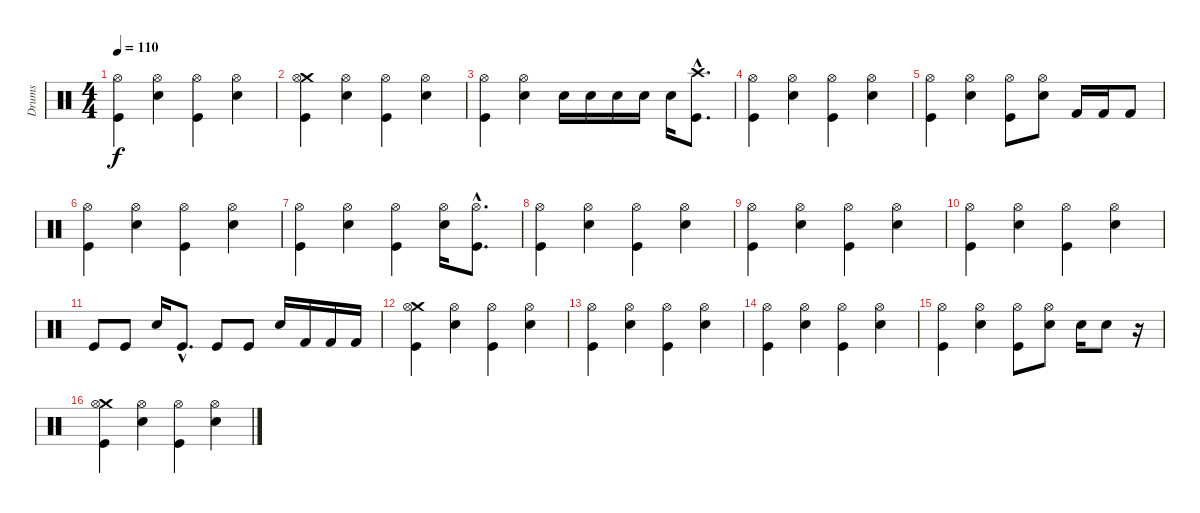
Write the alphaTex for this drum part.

\track ("Drums" "Drums") {instrument percussion}
\staff {score}
\articulation defaults
\ts (4 4)
\tempo 110
\clef neutral
\ks c
("Hi-Hat (open)" "Kick (hit)").4{dy f} ("Hi-Hat (open)" "Snare (hit) 2").4 ("Hi-Hat (open)" "Kick (hit)").4 ("Hi-Hat (open)" "Snare (hit) 2").4 |
("Crash medium (hit)" "Hi-Hat (open)" "Kick (hit)").4 ("Hi-Hat (open)" "Snare (hit) 2").4 ("Hi-Hat (open)" "Kick (hit)").4 ("Hi-Hat (open)" "Snare (hit) 2").4 |
("Hi-Hat (open)" "Kick (hit)").4 ("Hi-Hat (open)" "Snare (hit) 2").4 "Snare (hit) 2".16 "Snare (hit) 2".16 "Snare (hit) 2".16 "Snare (hit) 2".16 "Snare (hit) 2".16 ("Crash high (hit)"{hac} "Kick (hit)"{hac}).8{d} |
("Hi-Hat (open)" "Kick (hit)").4 ("Hi-Hat (open)" "Snare (hit) 2").4 ("Hi-Hat (open)" "Kick (hit)").4 ("Hi-Hat (open)" "Snare (hit) 2").4 |
("Hi-Hat (open)" "Kick (hit)").4 ("Hi-Hat (open)" "Snare (hit) 2").4 ("Hi-Hat (open)" "Kick (hit)").8 ("Hi-Hat (open)" "Snare (hit) 2").8 "Kick (hit) 2".16 "Kick (hit) 2".16 "Kick (hit) 2".8 |
("Hi-Hat (open)" "Kick (hit)").4 ("Hi-Hat (open)" "Snare (hit) 2").4 ("Hi-Hat (open)" "Kick (hit)").4 ("Hi-Hat (open)" "Snare (hit) 2").4 |
("Hi-Hat (open)" "Kick (hit)").4 ("Hi-Hat (open)" "Snare (hit) 2").4 ("Hi-Hat (open)" "Kick (hit)").4 ("Hi-Hat (open)" "Snare (hit) 2").16 ("Hi-Hat (open)"{hac} "Kick (hit)"{hac}).8{d} |
("Hi-Hat (open)" "Kick (hit)").4 ("Hi-Hat (open)" "Snare (hit) 2").4 ("Hi-Hat (open)" "Kick (hit)").4 ("Hi-Hat (open)" "Snare (hit) 2").4 |
("Hi-Hat (open)" "Kick (hit)").4 ("Hi-Hat (open)" "Snare (hit) 2").4 ("Hi-Hat (open)" "Kick (hit)").4 ("Hi-Hat (open)" "Snare (hit) 2").4 |
("Hi-Hat (open)" "Kick (hit)").4 ("Hi-Hat (open)" "Snare (hit) 2").4 ("Hi-Hat (open)" "Kick (hit)").4 ("Hi-Hat (open)" "Snare (hit) 2").4 |
"Kick (hit)".8 "Kick (hit)".8 "Snare (hit) 2".16 "Kick (hit)"{hac}.8{d} "Kick (hit)".8 "Kick (hit)".8 "Snare (hit) 2".16 "Kick (hit) 2".16 "Kick (hit) 2".16 "Kick (hit) 2".16 |
("Crash medium (hit)" "Hi-Hat (open)" "Kick (hit)").4 ("Hi-Hat (open)" "Snare (hit) 2").4 ("Hi-Hat (open)" "Kick (hit)").4 ("Hi-Hat (open)" "Snare (hit) 2").4 |
("Hi-Hat (open)" "Kick (hit)").4 ("Hi-Hat (open)" "Snare (hit) 2").4 ("Hi-Hat (open)" "Kick (hit)").4 ("Hi-Hat (open)" "Snare (hit) 2").4 |
("Hi-Hat (open)" "Kick (hit)").4 ("Hi-Hat (open)" "Snare (hit) 2").4 ("Hi-Hat (open)" "Kick (hit)").4 ("Hi-Hat (open)" "Snare (hit) 2").4 |
("Hi-Hat (open)" "Kick (hit)").4 ("Hi-Hat (open)" "Snare (hit) 2").4 ("Hi-Hat (open)" "Kick (hit)").8 ("Hi-Hat (open)" "Snare (hit) 2").8 "Snare (hit) 2".16 "Snare (hit) 2".8 r.16 |
("Crash medium (hit)" "Hi-Hat (open)" "Kick (hit)").4 ("Hi-Hat (open)" "Snare (hit) 2").4 ("Hi-Hat (open)" "Kick (hit)").4 ("Hi-Hat (open)" "Snare (hit) 2").4
